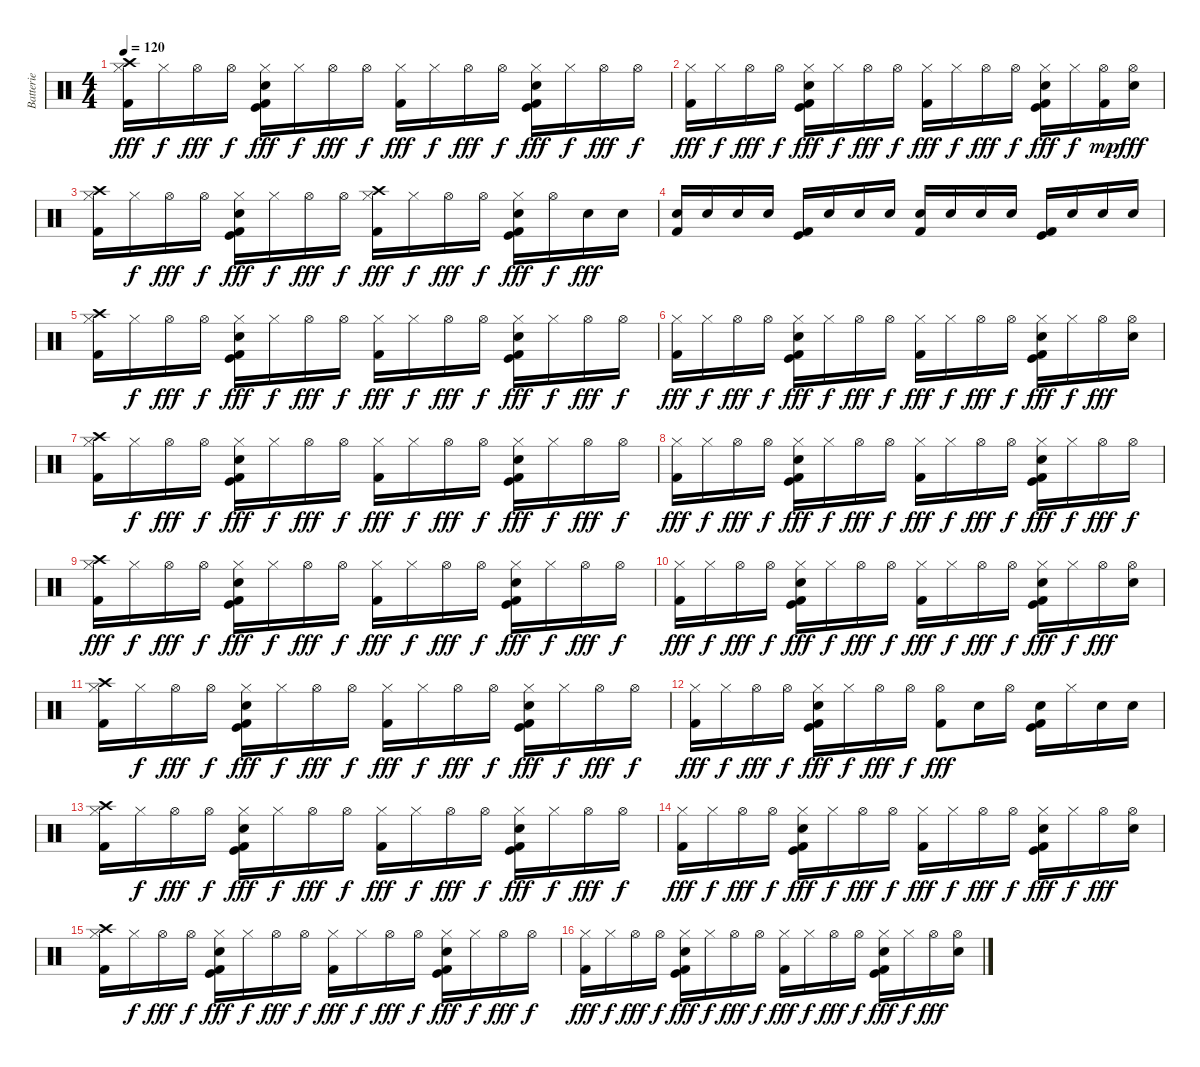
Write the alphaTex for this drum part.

\track ("Batterie" "Batterie") {instrument percussion}
\staff {score}
\articulation defaults
\ts (4 4)
\tempo 120
\clef neutral
\ks c
("Hi-Hat (closed)" "Crash high (hit)" "Kick (hit) 2").16{dy fff} "Hi-Hat (closed)".16{dy f} "Hi-Hat (open)".16{dy fff} "Hi-Hat (open)".16{dy f} ("Hi-Hat (closed)" "Electric Snare (hit)" "Kick (hit) 2" "Kick (hit)").16{dy fff} "Hi-Hat (closed)".16{dy f} "Hi-Hat (open)".16{dy fff} "Hi-Hat (open)".16{dy f} ("Hi-Hat (closed)" "Kick (hit) 2").16{dy fff} "Hi-Hat (closed)".16{dy f} "Hi-Hat (open)".16{dy fff} "Hi-Hat (open)".16{dy f} ("Hi-Hat (closed)" "Electric Snare (hit)" "Kick (hit)" "Kick (hit) 2").16{dy fff} "Hi-Hat (closed)".16{dy f} "Hi-Hat (open)".16{dy fff} "Hi-Hat (open)".16{dy f} |
("Hi-Hat (closed)" "Kick (hit) 2").16{dy fff} "Hi-Hat (closed)".16{dy f} "Hi-Hat (open)".16{dy fff} "Hi-Hat (open)".16{dy f} ("Hi-Hat (closed)" "Electric Snare (hit)" "Kick (hit) 2" "Kick (hit)").16{dy fff} "Hi-Hat (closed)".16{dy f} "Hi-Hat (open)".16{dy fff} "Hi-Hat (open)".16{dy f} ("Hi-Hat (closed)" "Kick (hit) 2").16{dy fff} "Hi-Hat (closed)".16{dy f} "Hi-Hat (open)".16{dy fff} "Hi-Hat (open)".16{dy f} ("Hi-Hat (closed)" "Electric Snare (hit)" "Kick (hit)" "Kick (hit) 2").16{dy fff} "Hi-Hat (closed)".16{dy f} ("Hi-Hat (open)" "Kick (hit) 2").16{dy mp} ("Hi-Hat (open)" "Electric Snare (hit)").16{dy fff} |
("Hi-Hat (closed)" "Crash high (hit)" "Kick (hit) 2").16 "Hi-Hat (closed)".16{dy f} "Hi-Hat (open)".16{dy fff} "Hi-Hat (open)".16{dy f} ("Hi-Hat (closed)" "Electric Snare (hit)" "Kick (hit) 2" "Kick (hit)").16{dy fff} "Hi-Hat (closed)".16{dy f} "Hi-Hat (open)".16{dy fff} "Hi-Hat (open)".16{dy f} ("Hi-Hat (closed)" "Crash high (hit)" "Kick (hit) 2").16{dy fff} "Hi-Hat (closed)".16{dy f} "Hi-Hat (open)".16{dy fff} "Hi-Hat (open)".16{dy f} ("Hi-Hat (closed)" "Electric Snare (hit)" "Kick (hit) 2" "Kick (hit)").16{dy fff} "Hi-Hat (open)".16{dy f} "Electric Snare (hit)".16{dy fff} "Electric Snare (hit)".16 |
("Electric Snare (hit)" "Kick (hit) 2").16 "Electric Snare (hit)".16 "Electric Snare (hit)".16 "Electric Snare (hit)".16 ("Kick (hit) 2" "Kick (hit)").16 "Electric Snare (hit)".16 "Electric Snare (hit)".16 "Electric Snare (hit)".16 ("Electric Snare (hit)" "Kick (hit) 2").16 "Electric Snare (hit)".16 "Electric Snare (hit)".16 "Electric Snare (hit)".16 ("Kick (hit) 2" "Kick (hit)").16 "Electric Snare (hit)".16 "Electric Snare (hit)".16 "Electric Snare (hit)".16 |
("Hi-Hat (closed)" "Crash high (hit)" "Kick (hit) 2").16 "Hi-Hat (closed)".16{dy f} "Hi-Hat (open)".16{dy fff} "Hi-Hat (open)".16{dy f} ("Hi-Hat (closed)" "Electric Snare (hit)" "Kick (hit)" "Kick (hit) 2").16{dy fff} "Hi-Hat (closed)".16{dy f} "Hi-Hat (open)".16{dy fff} "Hi-Hat (open)".16{dy f} ("Hi-Hat (closed)" "Kick (hit) 2").16{dy fff} "Hi-Hat (closed)".16{dy f} "Hi-Hat (open)".16{dy fff} "Hi-Hat (open)".16{dy f} ("Hi-Hat (closed)" "Electric Snare (hit)" "Kick (hit)" "Kick (hit) 2").16{dy fff} "Hi-Hat (closed)".16{dy f} "Hi-Hat (open)".16{dy fff} "Hi-Hat (open)".16{dy f} |
("Hi-Hat (closed)" "Kick (hit) 2").16{dy fff} "Hi-Hat (closed)".16{dy f} "Hi-Hat (open)".16{dy fff} "Hi-Hat (open)".16{dy f} ("Hi-Hat (closed)" "Electric Snare (hit)" "Kick (hit) 2" "Kick (hit)").16{dy fff} "Hi-Hat (closed)".16{dy f} "Hi-Hat (open)".16{dy fff} "Hi-Hat (open)".16{dy f} ("Hi-Hat (closed)" "Kick (hit) 2").16{dy fff} "Hi-Hat (closed)".16{dy f} "Hi-Hat (open)".16{dy fff} "Hi-Hat (open)".16{dy f} ("Hi-Hat (closed)" "Electric Snare (hit)" "Kick (hit)" "Kick (hit) 2").16{dy fff} "Hi-Hat (closed)".16{dy f} "Hi-Hat (open)".16{dy fff} ("Hi-Hat (open)" "Electric Snare (hit)").16 |
("Hi-Hat (closed)" "Crash high (hit)" "Kick (hit) 2").16 "Hi-Hat (closed)".16{dy f} "Hi-Hat (open)".16{dy fff} "Hi-Hat (open)".16{dy f} ("Hi-Hat (closed)" "Electric Snare (hit)" "Kick (hit)" "Kick (hit) 2").16{dy fff} "Hi-Hat (closed)".16{dy f} "Hi-Hat (open)".16{dy fff} "Hi-Hat (open)".16{dy f} ("Hi-Hat (closed)" "Kick (hit) 2").16{dy fff} "Hi-Hat (closed)".16{dy f} "Hi-Hat (open)".16{dy fff} "Hi-Hat (open)".16{dy f} ("Hi-Hat (closed)" "Electric Snare (hit)" "Kick (hit)" "Kick (hit) 2").16{dy fff} "Hi-Hat (closed)".16{dy f} "Hi-Hat (open)".16{dy fff} "Hi-Hat (open)".16{dy f} |
("Hi-Hat (closed)" "Kick (hit) 2").16{dy fff} "Hi-Hat (closed)".16{dy f} "Hi-Hat (open)".16{dy fff} "Hi-Hat (open)".16{dy f} ("Hi-Hat (closed)" "Electric Snare (hit)" "Kick (hit) 2" "Kick (hit)").16{dy fff} "Hi-Hat (closed)".16{dy f} "Hi-Hat (open)".16{dy fff} "Hi-Hat (open)".16{dy f} ("Hi-Hat (closed)" "Kick (hit) 2").16{dy fff} "Hi-Hat (closed)".16{dy f} "Hi-Hat (open)".16{dy fff} "Hi-Hat (open)".16{dy f} ("Hi-Hat (closed)" "Electric Snare (hit)" "Kick (hit)" "Kick (hit) 2").16{dy fff} "Hi-Hat (closed)".16{dy f} "Hi-Hat (open)".16{dy fff} "Hi-Hat (open)".16{dy f} |
("Hi-Hat (closed)" "Crash high (hit)" "Kick (hit) 2").16{dy fff} "Hi-Hat (closed)".16{dy f} "Hi-Hat (open)".16{dy fff} "Hi-Hat (open)".16{dy f} ("Hi-Hat (closed)" "Electric Snare (hit)" "Kick (hit)" "Kick (hit) 2").16{dy fff} "Hi-Hat (closed)".16{dy f} "Hi-Hat (open)".16{dy fff} "Hi-Hat (open)".16{dy f} ("Hi-Hat (closed)" "Kick (hit) 2").16{dy fff} "Hi-Hat (closed)".16{dy f} "Hi-Hat (open)".16{dy fff} "Hi-Hat (open)".16{dy f} ("Hi-Hat (closed)" "Electric Snare (hit)" "Kick (hit)" "Kick (hit) 2").16{dy fff} "Hi-Hat (closed)".16{dy f} "Hi-Hat (open)".16{dy fff} "Hi-Hat (open)".16{dy f} |
("Hi-Hat (closed)" "Kick (hit) 2").16{dy fff} "Hi-Hat (closed)".16{dy f} "Hi-Hat (open)".16{dy fff} "Hi-Hat (open)".16{dy f} ("Hi-Hat (closed)" "Electric Snare (hit)" "Kick (hit) 2" "Kick (hit)").16{dy fff} "Hi-Hat (closed)".16{dy f} "Hi-Hat (open)".16{dy fff} "Hi-Hat (open)".16{dy f} ("Hi-Hat (closed)" "Kick (hit) 2").16{dy fff} "Hi-Hat (closed)".16{dy f} "Hi-Hat (open)".16{dy fff} "Hi-Hat (open)".16{dy f} ("Hi-Hat (closed)" "Electric Snare (hit)" "Kick (hit)" "Kick (hit) 2").16{dy fff} "Hi-Hat (closed)".16{dy f} "Hi-Hat (open)".16{dy fff} ("Hi-Hat (open)" "Electric Snare (hit)").16 |
("Hi-Hat (closed)" "Crash high (hit)" "Kick (hit) 2").16 "Hi-Hat (closed)".16{dy f} "Hi-Hat (open)".16{dy fff} "Hi-Hat (open)".16{dy f} ("Hi-Hat (closed)" "Electric Snare (hit)" "Kick (hit)" "Kick (hit) 2").16{dy fff} "Hi-Hat (closed)".16{dy f} "Hi-Hat (open)".16{dy fff} "Hi-Hat (open)".16{dy f} ("Hi-Hat (closed)" "Kick (hit) 2").16{dy fff} "Hi-Hat (closed)".16{dy f} "Hi-Hat (open)".16{dy fff} "Hi-Hat (open)".16{dy f} ("Hi-Hat (closed)" "Electric Snare (hit)" "Kick (hit)" "Kick (hit) 2").16{dy fff} "Hi-Hat (closed)".16{dy f} "Hi-Hat (open)".16{dy fff} "Hi-Hat (open)".16{dy f} |
("Hi-Hat (closed)" "Kick (hit) 2").16{dy fff} "Hi-Hat (closed)".16{dy f} "Hi-Hat (open)".16{dy fff} "Hi-Hat (open)".16{dy f} ("Hi-Hat (closed)" "Electric Snare (hit)" "Kick (hit) 2" "Kick (hit)").16{dy fff} "Hi-Hat (closed)".16{dy f} "Hi-Hat (open)".16{dy fff} "Hi-Hat (open)".16{dy f} ("Hi-Hat (open)" "Kick (hit) 2").8{dy fff} "Electric Snare (hit)".16 "Hi-Hat (open)".16 ("Electric Snare (hit)" "Kick (hit)" "Kick (hit) 2").16 "Hi-Hat (closed)".16 "Electric Snare (hit)".16 "Electric Snare (hit)".16 |
("Hi-Hat (closed)" "Crash high (hit)" "Kick (hit) 2").16 "Hi-Hat (closed)".16{dy f} "Hi-Hat (open)".16{dy fff} "Hi-Hat (open)".16{dy f} ("Hi-Hat (closed)" "Electric Snare (hit)" "Kick (hit)" "Kick (hit) 2").16{dy fff} "Hi-Hat (closed)".16{dy f} "Hi-Hat (open)".16{dy fff} "Hi-Hat (open)".16{dy f} ("Hi-Hat (closed)" "Kick (hit) 2").16{dy fff} "Hi-Hat (closed)".16{dy f} "Hi-Hat (open)".16{dy fff} "Hi-Hat (open)".16{dy f} ("Hi-Hat (closed)" "Electric Snare (hit)" "Kick (hit)" "Kick (hit) 2").16{dy fff} "Hi-Hat (closed)".16{dy f} "Hi-Hat (open)".16{dy fff} "Hi-Hat (open)".16{dy f} |
("Hi-Hat (closed)" "Kick (hit) 2").16{dy fff} "Hi-Hat (closed)".16{dy f} "Hi-Hat (open)".16{dy fff} "Hi-Hat (open)".16{dy f} ("Hi-Hat (closed)" "Electric Snare (hit)" "Kick (hit) 2" "Kick (hit)").16{dy fff} "Hi-Hat (closed)".16{dy f} "Hi-Hat (open)".16{dy fff} "Hi-Hat (open)".16{dy f} ("Hi-Hat (closed)" "Kick (hit) 2").16{dy fff} "Hi-Hat (closed)".16{dy f} "Hi-Hat (open)".16{dy fff} "Hi-Hat (open)".16{dy f} ("Hi-Hat (closed)" "Electric Snare (hit)" "Kick (hit)" "Kick (hit) 2").16{dy fff} "Hi-Hat (closed)".16{dy f} "Hi-Hat (open)".16{dy fff} ("Hi-Hat (open)" "Electric Snare (hit)").16 |
("Hi-Hat (closed)" "Crash high (hit)" "Kick (hit) 2").16 "Hi-Hat (closed)".16{dy f} "Hi-Hat (open)".16{dy fff} "Hi-Hat (open)".16{dy f} ("Hi-Hat (closed)" "Electric Snare (hit)" "Kick (hit)" "Kick (hit) 2").16{dy fff} "Hi-Hat (closed)".16{dy f} "Hi-Hat (open)".16{dy fff} "Hi-Hat (open)".16{dy f} ("Hi-Hat (closed)" "Kick (hit) 2").16{dy fff} "Hi-Hat (closed)".16{dy f} "Hi-Hat (open)".16{dy fff} "Hi-Hat (open)".16{dy f} ("Hi-Hat (closed)" "Electric Snare (hit)" "Kick (hit)" "Kick (hit) 2").16{dy fff} "Hi-Hat (closed)".16{dy f} "Hi-Hat (open)".16{dy fff} "Hi-Hat (open)".16{dy f} |
("Hi-Hat (closed)" "Kick (hit) 2").16{dy fff} "Hi-Hat (closed)".16{dy f} "Hi-Hat (open)".16{dy fff} "Hi-Hat (open)".16{dy f} ("Hi-Hat (closed)" "Electric Snare (hit)" "Kick (hit) 2" "Kick (hit)").16{dy fff} "Hi-Hat (closed)".16{dy f} "Hi-Hat (open)".16{dy fff} "Hi-Hat (open)".16{dy f} ("Hi-Hat (closed)" "Kick (hit) 2").16{dy fff} "Hi-Hat (closed)".16{dy f} "Hi-Hat (open)".16{dy fff} "Hi-Hat (open)".16{dy f} ("Hi-Hat (closed)" "Electric Snare (hit)" "Kick (hit)" "Kick (hit) 2").16{dy fff} "Hi-Hat (closed)".16{dy f} "Hi-Hat (open)".16{dy fff} ("Hi-Hat (open)" "Electric Snare (hit)").16
